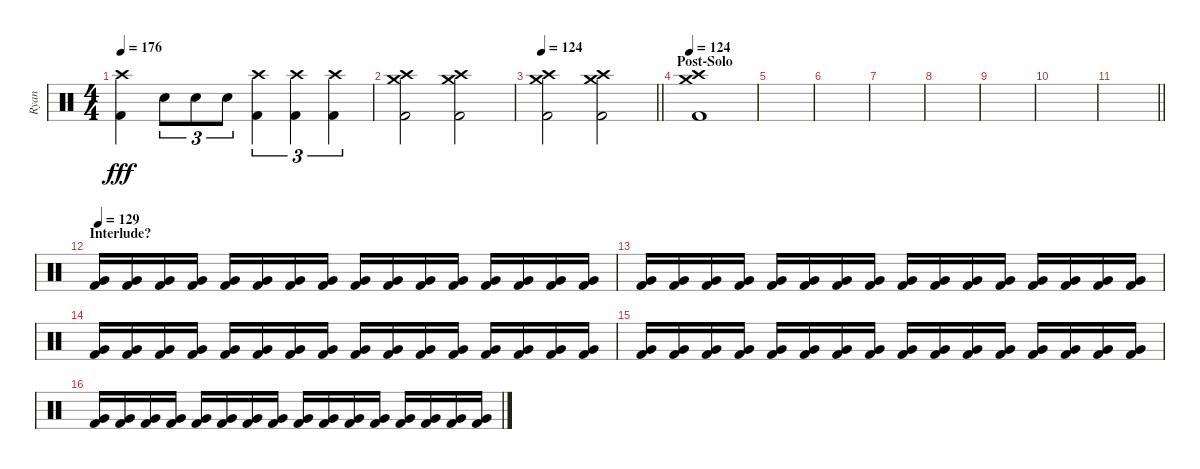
\track ("Ryan" "Ryan") {instrument percussion}
\staff {score}
\articulation defaults
\ts (4 4)
\tempo 176
\clef neutral
\ks c
("Crash high (hit)" "Kick (hit) 2").4{dy fff} "Electric Snare (hit)".8{tu (3 2)} "Electric Snare (hit)".8{tu (3 2)} "Electric Snare (hit)".8{tu (3 2)} ("Crash high (hit)" "Kick (hit) 2").4{tu (3 2)} ("Crash high (hit)" "Kick (hit) 2").4{tu (3 2)} ("Crash high (hit)" "Kick (hit) 2").4{tu (3 2)} |
("Crash high (hit)" "Crash medium (hit)" "Kick (hit) 2").2 ("Crash high (hit)" "Crash medium (hit)" "Kick (hit) 2").2 |
\tempo 124
\barLineRight lightlight
("Crash high (hit)" "Crash medium (hit)" "Kick (hit) 2").2 ("Crash high (hit)" "Crash medium (hit)" "Kick (hit) 2").2 |
\section ("" "Post-Solo")
\tempo 124
("Crash high (hit)" "Crash medium (hit)" "Kick (hit) 2").1 |
|
|
|
|
|
|
\barLineRight lightlight
|
\section ("" "Interlude?")
\tempo 129
("Very Low Tom (hit)" "Kick (hit) 2").16 ("Very Low Tom (hit)" "Kick (hit) 2").16 ("Very Low Tom (hit)" "Kick (hit) 2").16 ("Very Low Tom (hit)" "Kick (hit) 2").16 ("Very Low Tom (hit)" "Kick (hit) 2").16 ("Very Low Tom (hit)" "Kick (hit) 2").16 ("Very Low Tom (hit)" "Kick (hit) 2").16 ("Very Low Tom (hit)" "Kick (hit) 2").16 ("Very Low Tom (hit)" "Kick (hit) 2").16 ("Very Low Tom (hit)" "Kick (hit) 2").16 ("Very Low Tom (hit)" "Kick (hit) 2").16 ("Very Low Tom (hit)" "Kick (hit) 2").16 ("Very Low Tom (hit)" "Kick (hit) 2").16 ("Very Low Tom (hit)" "Kick (hit) 2").16 ("Very Low Tom (hit)" "Kick (hit) 2").16 ("Very Low Tom (hit)" "Kick (hit) 2").16 |
("Very Low Tom (hit)" "Kick (hit) 2").16 ("Very Low Tom (hit)" "Kick (hit) 2").16 ("Very Low Tom (hit)" "Kick (hit) 2").16 ("Very Low Tom (hit)" "Kick (hit) 2").16 ("Very Low Tom (hit)" "Kick (hit) 2").16 ("Very Low Tom (hit)" "Kick (hit) 2").16 ("Very Low Tom (hit)" "Kick (hit) 2").16 ("Very Low Tom (hit)" "Kick (hit) 2").16 ("Very Low Tom (hit)" "Kick (hit) 2").16 ("Very Low Tom (hit)" "Kick (hit) 2").16 ("Very Low Tom (hit)" "Kick (hit) 2").16 ("Very Low Tom (hit)" "Kick (hit) 2").16 ("Very Low Tom (hit)" "Kick (hit) 2").16 ("Very Low Tom (hit)" "Kick (hit) 2").16 ("Very Low Tom (hit)" "Kick (hit) 2").16 ("Very Low Tom (hit)" "Kick (hit) 2").16 |
("Very Low Tom (hit)" "Kick (hit) 2").16 ("Very Low Tom (hit)" "Kick (hit) 2").16 ("Very Low Tom (hit)" "Kick (hit) 2").16 ("Very Low Tom (hit)" "Kick (hit) 2").16 ("Very Low Tom (hit)" "Kick (hit) 2").16 ("Very Low Tom (hit)" "Kick (hit) 2").16 ("Very Low Tom (hit)" "Kick (hit) 2").16 ("Very Low Tom (hit)" "Kick (hit) 2").16 ("Very Low Tom (hit)" "Kick (hit) 2").16 ("Very Low Tom (hit)" "Kick (hit) 2").16 ("Very Low Tom (hit)" "Kick (hit) 2").16 ("Very Low Tom (hit)" "Kick (hit) 2").16 ("Very Low Tom (hit)" "Kick (hit) 2").16 ("Very Low Tom (hit)" "Kick (hit) 2").16 ("Very Low Tom (hit)" "Kick (hit) 2").16 ("Very Low Tom (hit)" "Kick (hit) 2").16 |
("Very Low Tom (hit)" "Kick (hit) 2").16 ("Very Low Tom (hit)" "Kick (hit) 2").16 ("Very Low Tom (hit)" "Kick (hit) 2").16 ("Very Low Tom (hit)" "Kick (hit) 2").16 ("Very Low Tom (hit)" "Kick (hit) 2").16 ("Very Low Tom (hit)" "Kick (hit) 2").16 ("Very Low Tom (hit)" "Kick (hit) 2").16 ("Very Low Tom (hit)" "Kick (hit) 2").16 ("Very Low Tom (hit)" "Kick (hit) 2").16 ("Very Low Tom (hit)" "Kick (hit) 2").16 ("Very Low Tom (hit)" "Kick (hit) 2").16 ("Very Low Tom (hit)" "Kick (hit) 2").16 ("Very Low Tom (hit)" "Kick (hit) 2").16 ("Very Low Tom (hit)" "Kick (hit) 2").16 ("Very Low Tom (hit)" "Kick (hit) 2").16 ("Very Low Tom (hit)" "Kick (hit) 2").16 |
("Very Low Tom (hit)" "Kick (hit) 2").16 ("Very Low Tom (hit)" "Kick (hit) 2").16 ("Very Low Tom (hit)" "Kick (hit) 2").16 ("Very Low Tom (hit)" "Kick (hit) 2").16 ("Very Low Tom (hit)" "Kick (hit) 2").16 ("Very Low Tom (hit)" "Kick (hit) 2").16 ("Very Low Tom (hit)" "Kick (hit) 2").16 ("Very Low Tom (hit)" "Kick (hit) 2").16 ("Very Low Tom (hit)" "Kick (hit) 2").16 ("Very Low Tom (hit)" "Kick (hit) 2").16 ("Very Low Tom (hit)" "Kick (hit) 2").16 ("Very Low Tom (hit)" "Kick (hit) 2").16 ("Very Low Tom (hit)" "Kick (hit) 2").16 ("Very Low Tom (hit)" "Kick (hit) 2").16 ("Very Low Tom (hit)" "Kick (hit) 2").16 ("Very Low Tom (hit)" "Kick (hit) 2").16
